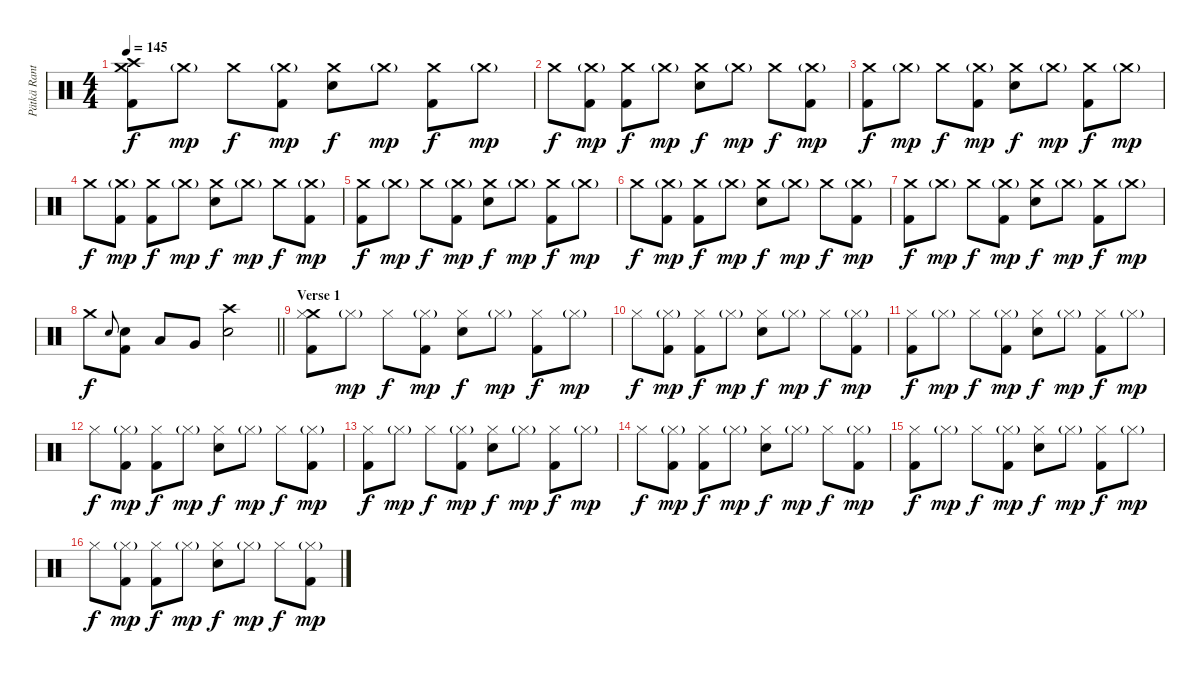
\track ("Pätkä Rantala (Drums)" "Pätkä Rant") {instrument percussion}
\staff {score}
\articulation defaults
\ts (4 4)
\tempo 145
\clef neutral
\ks c
("Crash high (hit)" "Crash medium (hit)" "Kick (hit) 2").8{dy f} "Crash medium (hit)"{g}.8{dy mp} "Crash medium (hit)".8{dy f} ("Crash medium (hit)"{g} "Kick (hit) 2").8{dy mp} ("Crash medium (hit)" "Snare (hit) 2").8{dy f} "Crash medium (hit)"{g}.8{dy mp} ("Crash medium (hit)" "Kick (hit) 2").8{dy f} "Crash medium (hit)"{g}.8{dy mp} |
"Crash medium (hit)".8{dy f} ("Crash medium (hit)"{g} "Kick (hit) 2").8{dy mp} ("Crash medium (hit)" "Kick (hit) 2").8{dy f} "Crash medium (hit)"{g}.8{dy mp} ("Crash medium (hit)" "Snare (hit) 2").8{dy f} "Crash medium (hit)"{g}.8{dy mp} "Crash medium (hit)".8{dy f} ("Crash medium (hit)"{g} "Kick (hit) 2").8{dy mp} |
("Crash medium (hit)" "Kick (hit) 2").8{dy f} "Crash medium (hit)"{g}.8{dy mp} "Crash medium (hit)".8{dy f} ("Crash medium (hit)"{g} "Kick (hit) 2").8{dy mp} ("Crash medium (hit)" "Snare (hit) 2").8{dy f} "Crash medium (hit)"{g}.8{dy mp} ("Crash medium (hit)" "Kick (hit) 2").8{dy f} "Crash medium (hit)"{g}.8{dy mp} |
"Crash medium (hit)".8{dy f} ("Crash medium (hit)"{g} "Kick (hit) 2").8{dy mp} ("Crash medium (hit)" "Kick (hit) 2").8{dy f} "Crash medium (hit)"{g}.8{dy mp} ("Crash medium (hit)" "Snare (hit) 2").8{dy f} "Crash medium (hit)"{g}.8{dy mp} "Crash medium (hit)".8{dy f} ("Crash medium (hit)"{g} "Kick (hit) 2").8{dy mp} |
("Crash medium (hit)" "Kick (hit) 2").8{dy f} "Crash medium (hit)"{g}.8{dy mp} "Crash medium (hit)".8{dy f} ("Crash medium (hit)"{g} "Kick (hit) 2").8{dy mp} ("Crash medium (hit)" "Snare (hit) 2").8{dy f} "Crash medium (hit)"{g}.8{dy mp} ("Crash medium (hit)" "Kick (hit) 2").8{dy f} "Crash medium (hit)"{g}.8{dy mp} |
"Crash medium (hit)".8{dy f} ("Crash medium (hit)"{g} "Kick (hit) 2").8{dy mp} ("Crash medium (hit)" "Kick (hit) 2").8{dy f} "Crash medium (hit)"{g}.8{dy mp} ("Crash medium (hit)" "Snare (hit) 2").8{dy f} "Crash medium (hit)"{g}.8{dy mp} "Crash medium (hit)".8{dy f} ("Crash medium (hit)"{g} "Kick (hit) 2").8{dy mp} |
("Crash medium (hit)" "Kick (hit) 2").8{dy f} "Crash medium (hit)"{g}.8{dy mp} "Crash medium (hit)".8{dy f} ("Crash medium (hit)"{g} "Kick (hit) 2").8{dy mp} ("Crash medium (hit)" "Snare (hit) 2").8{dy f} "Crash medium (hit)"{g}.8{dy mp} ("Crash medium (hit)" "Kick (hit) 2").8{dy f} "Crash medium (hit)"{g}.8{dy mp} |
\barLineRight lightlight "Crash medium (hit)".8{dy f} "Snare (hit) 2".8{gr onbeat}
("Snare (hit) 2" "Kick (hit) 2").8 "Low Tom (hit)".8 "Very Low Tom (hit)".8 ("Crash high (hit)" "Snare (hit) 2").2 |
\section ("" "Verse 1")
("Crash medium (hit)" "Hi-Hat (closed)" "Kick (hit) 2").8 "Hi-Hat (closed)"{g}.8{dy mp} "Hi-Hat (closed)".8{dy f} ("Hi-Hat (closed)"{g} "Kick (hit) 2").8{dy mp} ("Hi-Hat (closed)" "Snare (hit) 2").8{dy f} "Hi-Hat (closed)"{g}.8{dy mp} ("Hi-Hat (closed)" "Kick (hit) 2").8{dy f} "Hi-Hat (closed)"{g}.8{dy mp} |
"Hi-Hat (closed)".8{dy f} ("Hi-Hat (closed)"{g} "Kick (hit) 2").8{dy mp} ("Hi-Hat (closed)" "Kick (hit) 2").8{dy f} "Hi-Hat (closed)"{g}.8{dy mp} ("Hi-Hat (closed)" "Snare (hit) 2").8{dy f} "Hi-Hat (closed)"{g}.8{dy mp} "Hi-Hat (closed)".8{dy f} ("Hi-Hat (closed)"{g} "Kick (hit) 2").8{dy mp} |
("Hi-Hat (closed)" "Kick (hit) 2").8{dy f} "Hi-Hat (closed)"{g}.8{dy mp} "Hi-Hat (closed)".8{dy f} ("Hi-Hat (closed)"{g} "Kick (hit) 2").8{dy mp} ("Hi-Hat (closed)" "Snare (hit) 2").8{dy f} "Hi-Hat (closed)"{g}.8{dy mp} ("Hi-Hat (closed)" "Kick (hit) 2").8{dy f} "Hi-Hat (closed)"{g}.8{dy mp} |
"Hi-Hat (closed)".8{dy f} ("Hi-Hat (closed)"{g} "Kick (hit) 2").8{dy mp} ("Hi-Hat (closed)" "Kick (hit) 2").8{dy f} "Hi-Hat (closed)"{g}.8{dy mp} ("Hi-Hat (closed)" "Snare (hit) 2").8{dy f} "Hi-Hat (closed)"{g}.8{dy mp} "Hi-Hat (closed)".8{dy f} ("Hi-Hat (closed)"{g} "Kick (hit) 2").8{dy mp} |
("Hi-Hat (closed)" "Kick (hit) 2").8{dy f} "Hi-Hat (closed)"{g}.8{dy mp} "Hi-Hat (closed)".8{dy f} ("Hi-Hat (closed)"{g} "Kick (hit) 2").8{dy mp} ("Hi-Hat (closed)" "Snare (hit) 2").8{dy f} "Hi-Hat (closed)"{g}.8{dy mp} ("Hi-Hat (closed)" "Kick (hit) 2").8{dy f} "Hi-Hat (closed)"{g}.8{dy mp} |
"Hi-Hat (closed)".8{dy f} ("Hi-Hat (closed)"{g} "Kick (hit) 2").8{dy mp} ("Hi-Hat (closed)" "Kick (hit) 2").8{dy f} "Hi-Hat (closed)"{g}.8{dy mp} ("Hi-Hat (closed)" "Snare (hit) 2").8{dy f} "Hi-Hat (closed)"{g}.8{dy mp} "Hi-Hat (closed)".8{dy f} ("Hi-Hat (closed)"{g} "Kick (hit) 2").8{dy mp} |
("Hi-Hat (closed)" "Kick (hit) 2").8{dy f} "Hi-Hat (closed)"{g}.8{dy mp} "Hi-Hat (closed)".8{dy f} ("Hi-Hat (closed)"{g} "Kick (hit) 2").8{dy mp} ("Hi-Hat (closed)" "Snare (hit) 2").8{dy f} "Hi-Hat (closed)"{g}.8{dy mp} ("Hi-Hat (closed)" "Kick (hit) 2").8{dy f} "Hi-Hat (closed)"{g}.8{dy mp} |
"Hi-Hat (closed)".8{dy f} ("Hi-Hat (closed)"{g} "Kick (hit) 2").8{dy mp} ("Hi-Hat (closed)" "Kick (hit) 2").8{dy f} "Hi-Hat (closed)"{g}.8{dy mp} ("Hi-Hat (closed)" "Snare (hit) 2").8{dy f} "Hi-Hat (closed)"{g}.8{dy mp} "Hi-Hat (closed)".8{dy f} ("Hi-Hat (closed)"{g} "Kick (hit) 2").8{dy mp}
